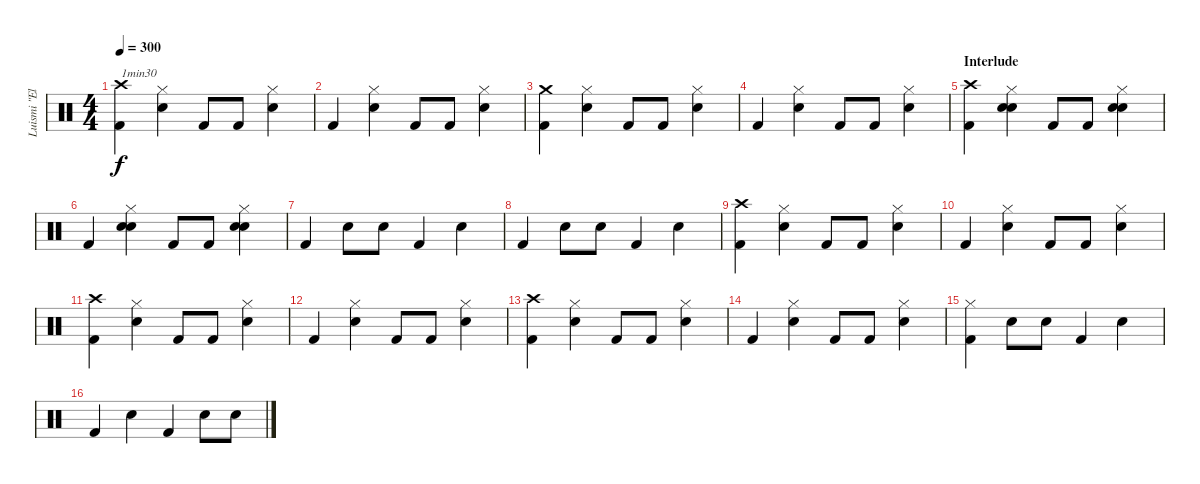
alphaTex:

\track ("Luismi \"El Papi\"" "Luismi \"El") {instrument percussion}
\staff {score}
\articulation defaults
\ts (4 4)
\tempo 300
\clef neutral
\ks c
("Crash high (hit)" "Kick (hit) 2").4{txt "1min30" dy f} ("Hi-Hat (closed)" "Snare (hit) 2").4 "Kick (hit) 2".8 "Kick (hit) 2".8 ("Hi-Hat (closed)" "Snare (hit) 2").4 |
"Kick (hit) 2".4 ("Hi-Hat (closed)" "Snare (hit) 2").4 "Kick (hit) 2".8 "Kick (hit) 2".8 ("Hi-Hat (closed)" "Snare (hit) 2").4 |
("Crash medium (hit)" "Kick (hit) 2").4 ("Hi-Hat (closed)" "Snare (hit) 2").4 "Kick (hit) 2".8 "Kick (hit) 2".8 ("Hi-Hat (closed)" "Snare (hit) 2").4 |
"Kick (hit) 2".4 ("Hi-Hat (closed)" "Snare (hit) 2").4 "Kick (hit) 2".8 "Kick (hit) 2".8 ("Hi-Hat (closed)" "Snare (hit) 2").4 |
\section ("" "Interlude")
("Crash high (hit)" "Kick (hit) 2").4 ("Hi-Hat (closed)" "Snare (hit) 2" "Snare (hit) 2").4 "Kick (hit) 2".8 "Kick (hit) 2".8 ("Hi-Hat (closed)" "Snare (hit) 2" "Snare (hit) 2").4 |
"Kick (hit) 2".4 ("Hi-Hat (closed)" "Snare (hit) 2" "Snare (hit) 2").4 "Kick (hit) 2".8 "Kick (hit) 2".8 ("Hi-Hat (closed)" "Snare (hit) 2" "Snare (hit) 2").4 |
"Kick (hit) 2".4 "Snare (hit) 2".8 "Snare (hit) 2".8 "Kick (hit) 2".4 "Snare (hit) 2".4 |
"Kick (hit) 2".4 "Snare (hit) 2".8 "Snare (hit) 2".8 "Kick (hit) 2".4 "Snare (hit) 2".4 |
("Crash high (hit)" "Kick (hit) 2").4 ("Hi-Hat (closed)" "Snare (hit) 2").4 "Kick (hit) 2".8 "Kick (hit) 2".8 ("Hi-Hat (closed)" "Snare (hit) 2").4 |
"Kick (hit) 2".4 ("Hi-Hat (closed)" "Snare (hit) 2").4 "Kick (hit) 2".8 "Kick (hit) 2".8 ("Hi-Hat (closed)" "Snare (hit) 2").4 |
("Crash high (hit)" "Kick (hit) 2").4 ("Hi-Hat (closed)" "Snare (hit) 2").4 "Kick (hit) 2".8 "Kick (hit) 2".8 ("Hi-Hat (closed)" "Snare (hit) 2").4 |
"Kick (hit) 2".4 ("Hi-Hat (closed)" "Snare (hit) 2").4 "Kick (hit) 2".8 "Kick (hit) 2".8 ("Hi-Hat (closed)" "Snare (hit) 2").4 |
("Crash high (hit)" "Kick (hit) 2").4 ("Hi-Hat (closed)" "Snare (hit) 2").4 "Kick (hit) 2".8 "Kick (hit) 2".8 ("Hi-Hat (closed)" "Snare (hit) 2").4 |
"Kick (hit) 2".4 ("Hi-Hat (closed)" "Snare (hit) 2").4 "Kick (hit) 2".8 "Kick (hit) 2".8 ("Hi-Hat (closed)" "Snare (hit) 2").4 |
("Hi-Hat (closed)" "Kick (hit) 2").4 "Snare (hit) 2".8 "Snare (hit) 2".8 "Kick (hit) 2".4 "Snare (hit) 2".4 |
"Kick (hit) 2".4 "Snare (hit) 2".4 "Kick (hit) 2".4 "Snare (hit) 2".8 "Snare (hit) 2".8
